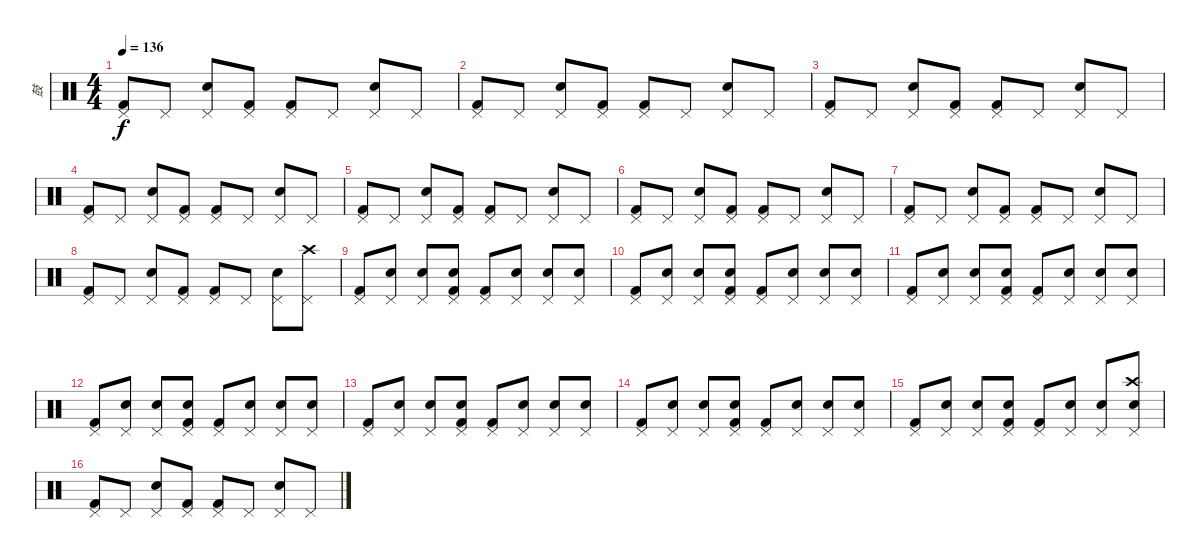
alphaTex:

\track ("鼓" "鼓") {instrument percussion}
\staff {score}
\articulation defaults
\ts (4 4)
\tempo 136
\clef neutral
\ks c
("Pedal Hi-Hat (hit)" "Kick (hit) 2").8{dy f} "Pedal Hi-Hat (hit)".8 ("Pedal Hi-Hat (hit)" "Electric Snare (hit)").8 ("Pedal Hi-Hat (hit)" "Kick (hit) 2").8 ("Pedal Hi-Hat (hit)" "Kick (hit) 2").8 "Pedal Hi-Hat (hit)".8 ("Pedal Hi-Hat (hit)" "Electric Snare (hit)").8 "Pedal Hi-Hat (hit)".8 |
("Pedal Hi-Hat (hit)" "Kick (hit) 2").8 "Pedal Hi-Hat (hit)".8 ("Pedal Hi-Hat (hit)" "Electric Snare (hit)").8 ("Pedal Hi-Hat (hit)" "Kick (hit) 2").8 ("Pedal Hi-Hat (hit)" "Kick (hit) 2").8 "Pedal Hi-Hat (hit)".8 ("Pedal Hi-Hat (hit)" "Electric Snare (hit)").8 "Pedal Hi-Hat (hit)".8 |
("Pedal Hi-Hat (hit)" "Kick (hit) 2").8 "Pedal Hi-Hat (hit)".8 ("Pedal Hi-Hat (hit)" "Electric Snare (hit)").8 ("Pedal Hi-Hat (hit)" "Kick (hit) 2").8 ("Pedal Hi-Hat (hit)" "Kick (hit) 2").8 "Pedal Hi-Hat (hit)".8 ("Pedal Hi-Hat (hit)" "Electric Snare (hit)").8 "Pedal Hi-Hat (hit)".8 |
("Pedal Hi-Hat (hit)" "Kick (hit) 2").8 "Pedal Hi-Hat (hit)".8 ("Pedal Hi-Hat (hit)" "Electric Snare (hit)").8 ("Pedal Hi-Hat (hit)" "Kick (hit) 2").8 ("Pedal Hi-Hat (hit)" "Kick (hit) 2").8 "Pedal Hi-Hat (hit)".8 ("Pedal Hi-Hat (hit)" "Electric Snare (hit)").8 "Pedal Hi-Hat (hit)".8 |
("Pedal Hi-Hat (hit)" "Kick (hit) 2").8 "Pedal Hi-Hat (hit)".8 ("Pedal Hi-Hat (hit)" "Electric Snare (hit)").8 ("Pedal Hi-Hat (hit)" "Kick (hit) 2").8 ("Pedal Hi-Hat (hit)" "Kick (hit) 2").8 "Pedal Hi-Hat (hit)".8 ("Pedal Hi-Hat (hit)" "Electric Snare (hit)").8 "Pedal Hi-Hat (hit)".8 |
("Pedal Hi-Hat (hit)" "Kick (hit) 2").8 "Pedal Hi-Hat (hit)".8 ("Pedal Hi-Hat (hit)" "Electric Snare (hit)").8 ("Pedal Hi-Hat (hit)" "Kick (hit) 2").8 ("Pedal Hi-Hat (hit)" "Kick (hit) 2").8 "Pedal Hi-Hat (hit)".8 ("Pedal Hi-Hat (hit)" "Electric Snare (hit)").8 "Pedal Hi-Hat (hit)".8 |
("Pedal Hi-Hat (hit)" "Kick (hit) 2").8 "Pedal Hi-Hat (hit)".8 ("Pedal Hi-Hat (hit)" "Electric Snare (hit)").8 ("Pedal Hi-Hat (hit)" "Kick (hit) 2").8 ("Pedal Hi-Hat (hit)" "Kick (hit) 2").8 "Pedal Hi-Hat (hit)".8 ("Pedal Hi-Hat (hit)" "Electric Snare (hit)").8 "Pedal Hi-Hat (hit)".8 |
("Pedal Hi-Hat (hit)" "Kick (hit) 2").8 "Pedal Hi-Hat (hit)".8 ("Pedal Hi-Hat (hit)" "Electric Snare (hit)").8 ("Pedal Hi-Hat (hit)" "Kick (hit) 2").8 ("Pedal Hi-Hat (hit)" "Kick (hit) 2").8 "Pedal Hi-Hat (hit)".8 ("Pedal Hi-Hat (hit)" "Electric Snare (hit)").8 ("Pedal Hi-Hat (hit)" "Crash high (hit)").8 |
("Pedal Hi-Hat (hit)" "Kick (hit) 2").8 ("Metronome (bell)" "Pedal Hi-Hat (hit)").8 ("Pedal Hi-Hat (hit)" "Electric Snare (hit)").8 ("Metronome (bell)" "Pedal Hi-Hat (hit)" "Kick (hit) 2").8 ("Pedal Hi-Hat (hit)" "Kick (hit) 2").8 ("Metronome (bell)" "Pedal Hi-Hat (hit)").8 ("Pedal Hi-Hat (hit)" "Electric Snare (hit)").8 ("Metronome (bell)" "Pedal Hi-Hat (hit)").8 |
("Pedal Hi-Hat (hit)" "Kick (hit) 2").8 ("Metronome (bell)" "Pedal Hi-Hat (hit)").8 ("Pedal Hi-Hat (hit)" "Electric Snare (hit)").8 ("Metronome (bell)" "Pedal Hi-Hat (hit)" "Kick (hit) 2").8 ("Pedal Hi-Hat (hit)" "Kick (hit) 2").8 ("Metronome (bell)" "Pedal Hi-Hat (hit)").8 ("Pedal Hi-Hat (hit)" "Electric Snare (hit)").8 ("Metronome (bell)" "Pedal Hi-Hat (hit)").8 |
("Pedal Hi-Hat (hit)" "Kick (hit) 2").8 ("Metronome (bell)" "Pedal Hi-Hat (hit)").8 ("Pedal Hi-Hat (hit)" "Electric Snare (hit)").8 ("Metronome (bell)" "Pedal Hi-Hat (hit)" "Kick (hit) 2").8 ("Pedal Hi-Hat (hit)" "Kick (hit) 2").8 ("Metronome (bell)" "Pedal Hi-Hat (hit)").8 ("Pedal Hi-Hat (hit)" "Electric Snare (hit)").8 ("Metronome (bell)" "Pedal Hi-Hat (hit)").8 |
("Pedal Hi-Hat (hit)" "Kick (hit) 2").8 ("Metronome (bell)" "Pedal Hi-Hat (hit)").8 ("Pedal Hi-Hat (hit)" "Electric Snare (hit)").8 ("Metronome (bell)" "Pedal Hi-Hat (hit)" "Kick (hit) 2").8 ("Pedal Hi-Hat (hit)" "Kick (hit) 2").8 ("Metronome (bell)" "Pedal Hi-Hat (hit)").8 ("Pedal Hi-Hat (hit)" "Electric Snare (hit)").8 ("Metronome (bell)" "Pedal Hi-Hat (hit)").8 |
("Pedal Hi-Hat (hit)" "Kick (hit) 2").8 ("Metronome (bell)" "Pedal Hi-Hat (hit)").8 ("Pedal Hi-Hat (hit)" "Electric Snare (hit)").8 ("Metronome (bell)" "Pedal Hi-Hat (hit)" "Kick (hit) 2").8 ("Pedal Hi-Hat (hit)" "Kick (hit) 2").8 ("Metronome (bell)" "Pedal Hi-Hat (hit)").8 ("Pedal Hi-Hat (hit)" "Electric Snare (hit)").8 ("Metronome (bell)" "Pedal Hi-Hat (hit)").8 |
("Pedal Hi-Hat (hit)" "Kick (hit) 2").8 ("Metronome (bell)" "Pedal Hi-Hat (hit)").8 ("Pedal Hi-Hat (hit)" "Electric Snare (hit)").8 ("Metronome (bell)" "Pedal Hi-Hat (hit)" "Kick (hit) 2").8 ("Pedal Hi-Hat (hit)" "Kick (hit) 2").8 ("Metronome (bell)" "Pedal Hi-Hat (hit)").8 ("Pedal Hi-Hat (hit)" "Electric Snare (hit)").8 ("Metronome (bell)" "Pedal Hi-Hat (hit)").8 |
("Pedal Hi-Hat (hit)" "Kick (hit) 2").8 ("Metronome (bell)" "Pedal Hi-Hat (hit)").8 ("Pedal Hi-Hat (hit)" "Electric Snare (hit)").8 ("Metronome (bell)" "Pedal Hi-Hat (hit)" "Kick (hit) 2").8 ("Pedal Hi-Hat (hit)" "Kick (hit) 2").8 ("Metronome (bell)" "Pedal Hi-Hat (hit)").8 ("Pedal Hi-Hat (hit)" "Electric Snare (hit)").8 ("Metronome (bell)" "Pedal Hi-Hat (hit)" "Crash high (hit)").8 |
("Pedal Hi-Hat (hit)" "Kick (hit) 2").8 "Pedal Hi-Hat (hit)".8 ("Pedal Hi-Hat (hit)" "Electric Snare (hit)").8 ("Pedal Hi-Hat (hit)" "Kick (hit) 2").8 ("Pedal Hi-Hat (hit)" "Kick (hit) 2").8 "Pedal Hi-Hat (hit)".8 ("Pedal Hi-Hat (hit)" "Electric Snare (hit)").8 "Pedal Hi-Hat (hit)".8
